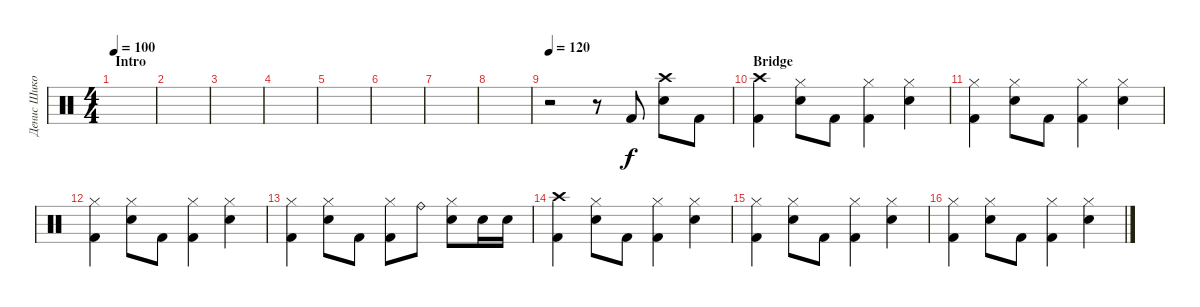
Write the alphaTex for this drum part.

\track ("Денис Шиков" "Денис Шико") {instrument percussion}
\staff {score}
\articulation defaults
\ts (4 4)
\section ("" "Intro")
\tempo 100
\clef neutral
\ks c
|
|
|
|
|
|
|
|
\tempo 120
r.2 r.8 "Kick (hit) 2".8 ("Crash high (hit)" "Electric Snare (hit)").8 "Kick (hit) 2".8 |
\section ("" "Bridge")
("Crash high (hit)" "Kick (hit) 2").4 ("Hi-Hat (closed)" "Electric Snare (hit)").8 "Kick (hit) 2".8 ("Hi-Hat (closed)" "Kick (hit) 2").4 ("Hi-Hat (closed)" "Electric Snare (hit)").4 |
("Hi-Hat (closed)" "Kick (hit) 2").4 ("Hi-Hat (closed)" "Electric Snare (hit)").8 "Kick (hit) 2".8 ("Hi-Hat (closed)" "Kick (hit) 2").4 ("Hi-Hat (closed)" "Electric Snare (hit)").4 |
("Hi-Hat (closed)" "Kick (hit) 2").4 ("Hi-Hat (closed)" "Electric Snare (hit)").8 "Kick (hit) 2".8 ("Hi-Hat (closed)" "Kick (hit) 2").4 ("Hi-Hat (closed)" "Electric Snare (hit)").4 |
("Hi-Hat (closed)" "Kick (hit) 2").4 ("Hi-Hat (closed)" "Electric Snare (hit)").8 "Kick (hit) 2".8 ("Hi-Hat (closed)" "Kick (hit) 2").8 "Ride (bell)".8 ("Hi-Hat (closed)" "Electric Snare (hit)").8 "Electric Snare (hit)".16 "Electric Snare (hit)".16 |
("Crash high (hit)" "Kick (hit) 2").4 ("Hi-Hat (closed)" "Electric Snare (hit)").8 "Kick (hit) 2".8 ("Hi-Hat (closed)" "Kick (hit) 2").4 ("Hi-Hat (closed)" "Electric Snare (hit)").4 |
("Hi-Hat (closed)" "Kick (hit) 2").4 ("Hi-Hat (closed)" "Electric Snare (hit)").8 "Kick (hit) 2".8 ("Hi-Hat (closed)" "Kick (hit) 2").4 ("Hi-Hat (closed)" "Electric Snare (hit)").4 |
("Hi-Hat (closed)" "Kick (hit) 2").4 ("Hi-Hat (closed)" "Electric Snare (hit)").8 "Kick (hit) 2".8 ("Hi-Hat (closed)" "Kick (hit) 2").4 ("Hi-Hat (closed)" "Electric Snare (hit)").4
